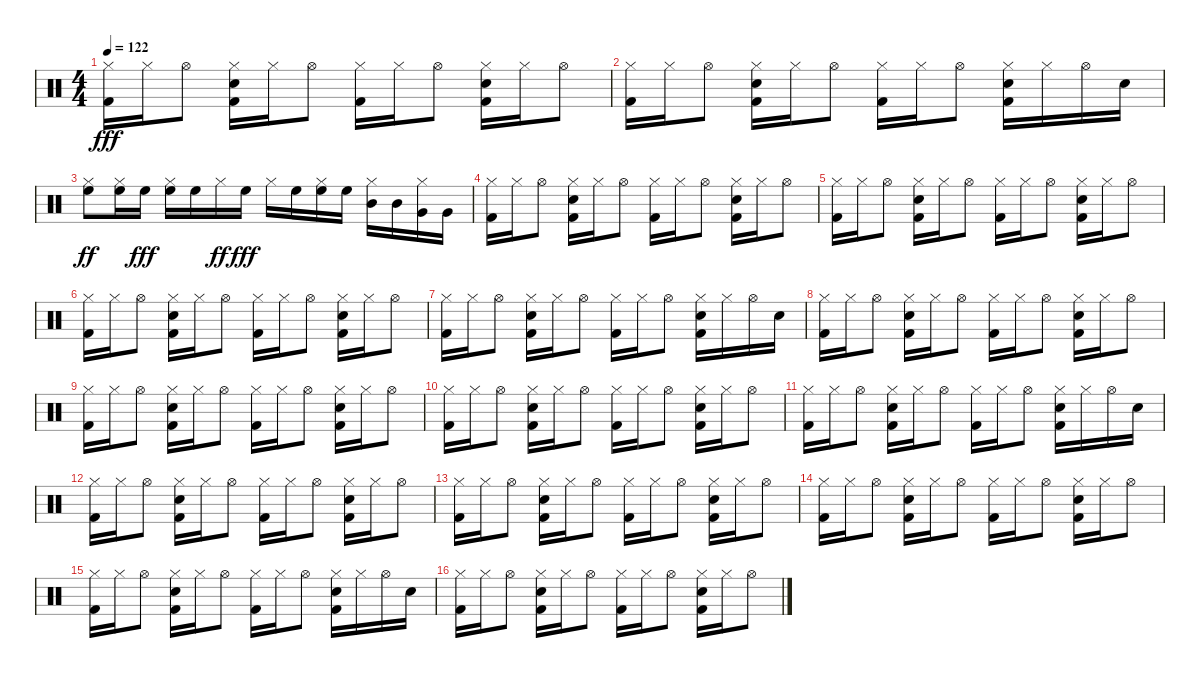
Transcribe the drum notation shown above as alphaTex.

\track "" {instrument percussion}
\staff {score}
\articulation defaults
\ts (4 4)
\tempo 122
\clef neutral
\ks c
("Kick (hit) 2" "Hi-Hat (closed)").16{dy fff} "Hi-Hat (closed)".16 "Hi-Hat (open)".8 ("Kick (hit) 2" "Snare (hit) 2" "Hi-Hat (closed)").16 "Hi-Hat (closed)".16 "Hi-Hat (open)".8 ("Kick (hit) 2" "Hi-Hat (closed)").16 "Hi-Hat (closed)".16 "Hi-Hat (open)".8 ("Kick (hit) 2" "Snare (hit) 2" "Hi-Hat (closed)").16 "Hi-Hat (closed)".16 "Hi-Hat (open)".8 |
("Kick (hit) 2" "Hi-Hat (closed)").16 "Hi-Hat (closed)".16 "Hi-Hat (open)".8 ("Kick (hit) 2" "Snare (hit) 2" "Hi-Hat (closed)").16 "Hi-Hat (closed)".16 "Hi-Hat (open)".8 ("Kick (hit) 2" "Hi-Hat (closed)").16 "Hi-Hat (closed)".16 "Hi-Hat (open)".8 ("Kick (hit) 2" "Snare (hit) 2" "Hi-Hat (closed)").16 "Hi-Hat (closed)".16 "Hi-Hat (open)".16 "Snare (hit) 2".16 |
("Hi-Hat (closed)" "High Floor Tom (hit)").8{dy ff} ("Hi-Hat (closed)" "High Floor Tom (hit)").16 "High Floor Tom (hit)".16{dy fff} ("Hi-Hat (closed)" "High Floor Tom (hit)").16 "High Floor Tom (hit)".16 "Hi-Hat (closed)".16{dy ff} "High Floor Tom (hit)".16{dy fff} "Hi-Hat (closed)".16 "High Floor Tom (hit)".16 ("Hi-Hat (closed)" "High Floor Tom (hit)").16 "High Floor Tom (hit)".16 ("Hi-Hat (closed)" "Mid Tom (hit)").16 "Mid Tom (hit)".16 ("Hi-Hat (closed)" "Very Low Tom (hit)").16 "Very Low Tom (hit)".16 |
("Kick (hit) 2" "Hi-Hat (closed)").16 "Hi-Hat (closed)".16 "Hi-Hat (open)".8 ("Kick (hit) 2" "Snare (hit) 2" "Hi-Hat (closed)").16 "Hi-Hat (closed)".16 "Hi-Hat (open)".8 ("Kick (hit) 2" "Hi-Hat (closed)").16 "Hi-Hat (closed)".16 "Hi-Hat (open)".8 ("Kick (hit) 2" "Snare (hit) 2" "Hi-Hat (closed)").16 "Hi-Hat (closed)".16 "Hi-Hat (open)".8 |
("Kick (hit) 2" "Hi-Hat (closed)").16 "Hi-Hat (closed)".16 "Hi-Hat (open)".8 ("Kick (hit) 2" "Snare (hit) 2" "Hi-Hat (closed)").16 "Hi-Hat (closed)".16 "Hi-Hat (open)".8 ("Kick (hit) 2" "Hi-Hat (closed)").16 "Hi-Hat (closed)".16 "Hi-Hat (open)".8 ("Kick (hit) 2" "Snare (hit) 2" "Hi-Hat (closed)").16 "Hi-Hat (closed)".16 "Hi-Hat (open)".8 |
("Kick (hit) 2" "Hi-Hat (closed)").16 "Hi-Hat (closed)".16 "Hi-Hat (open)".8 ("Kick (hit) 2" "Snare (hit) 2" "Hi-Hat (closed)").16 "Hi-Hat (closed)".16 "Hi-Hat (open)".8 ("Kick (hit) 2" "Hi-Hat (closed)").16 "Hi-Hat (closed)".16 "Hi-Hat (open)".8 ("Kick (hit) 2" "Snare (hit) 2" "Hi-Hat (closed)").16 "Hi-Hat (closed)".16 "Hi-Hat (open)".8 |
("Kick (hit) 2" "Hi-Hat (closed)").16 "Hi-Hat (closed)".16 "Hi-Hat (open)".8 ("Kick (hit) 2" "Snare (hit) 2" "Hi-Hat (closed)").16 "Hi-Hat (closed)".16 "Hi-Hat (open)".8 ("Kick (hit) 2" "Hi-Hat (closed)").16 "Hi-Hat (closed)".16 "Hi-Hat (open)".8 ("Kick (hit) 2" "Snare (hit) 2" "Hi-Hat (closed)").16 "Hi-Hat (closed)".16 "Hi-Hat (open)".16 "Snare (hit) 2".16 |
("Kick (hit) 2" "Hi-Hat (closed)").16 "Hi-Hat (closed)".16 "Hi-Hat (open)".8 ("Kick (hit) 2" "Snare (hit) 2" "Hi-Hat (closed)").16 "Hi-Hat (closed)".16 "Hi-Hat (open)".8 ("Kick (hit) 2" "Hi-Hat (closed)").16 "Hi-Hat (closed)".16 "Hi-Hat (open)".8 ("Kick (hit) 2" "Snare (hit) 2" "Hi-Hat (closed)").16 "Hi-Hat (closed)".16 "Hi-Hat (open)".8 |
("Kick (hit) 2" "Hi-Hat (closed)").16 "Hi-Hat (closed)".16 "Hi-Hat (open)".8 ("Kick (hit) 2" "Snare (hit) 2" "Hi-Hat (closed)").16 "Hi-Hat (closed)".16 "Hi-Hat (open)".8 ("Kick (hit) 2" "Hi-Hat (closed)").16 "Hi-Hat (closed)".16 "Hi-Hat (open)".8 ("Kick (hit) 2" "Snare (hit) 2" "Hi-Hat (closed)").16 "Hi-Hat (closed)".16 "Hi-Hat (open)".8 |
("Kick (hit) 2" "Hi-Hat (closed)").16 "Hi-Hat (closed)".16 "Hi-Hat (open)".8 ("Kick (hit) 2" "Snare (hit) 2" "Hi-Hat (closed)").16 "Hi-Hat (closed)".16 "Hi-Hat (open)".8 ("Kick (hit) 2" "Hi-Hat (closed)").16 "Hi-Hat (closed)".16 "Hi-Hat (open)".8 ("Kick (hit) 2" "Snare (hit) 2" "Hi-Hat (closed)").16 "Hi-Hat (closed)".16 "Hi-Hat (open)".8 |
("Kick (hit) 2" "Hi-Hat (closed)").16 "Hi-Hat (closed)".16 "Hi-Hat (open)".8 ("Kick (hit) 2" "Snare (hit) 2" "Hi-Hat (closed)").16 "Hi-Hat (closed)".16 "Hi-Hat (open)".8 ("Kick (hit) 2" "Hi-Hat (closed)").16 "Hi-Hat (closed)".16 "Hi-Hat (open)".8 ("Kick (hit) 2" "Snare (hit) 2" "Hi-Hat (closed)").16 "Hi-Hat (closed)".16 "Hi-Hat (open)".16 "Snare (hit) 2".16 |
("Kick (hit) 2" "Hi-Hat (closed)").16 "Hi-Hat (closed)".16 "Hi-Hat (open)".8 ("Kick (hit) 2" "Snare (hit) 2" "Hi-Hat (closed)").16 "Hi-Hat (closed)".16 "Hi-Hat (open)".8 ("Kick (hit) 2" "Hi-Hat (closed)").16 "Hi-Hat (closed)".16 "Hi-Hat (open)".8 ("Kick (hit) 2" "Snare (hit) 2" "Hi-Hat (closed)").16 "Hi-Hat (closed)".16 "Hi-Hat (open)".8 |
("Kick (hit) 2" "Hi-Hat (closed)").16 "Hi-Hat (closed)".16 "Hi-Hat (open)".8 ("Kick (hit) 2" "Snare (hit) 2" "Hi-Hat (closed)").16 "Hi-Hat (closed)".16 "Hi-Hat (open)".8 ("Kick (hit) 2" "Hi-Hat (closed)").16 "Hi-Hat (closed)".16 "Hi-Hat (open)".8 ("Kick (hit) 2" "Snare (hit) 2" "Hi-Hat (closed)").16 "Hi-Hat (closed)".16 "Hi-Hat (open)".8 |
("Kick (hit) 2" "Hi-Hat (closed)").16 "Hi-Hat (closed)".16 "Hi-Hat (open)".8 ("Kick (hit) 2" "Snare (hit) 2" "Hi-Hat (closed)").16 "Hi-Hat (closed)".16 "Hi-Hat (open)".8 ("Kick (hit) 2" "Hi-Hat (closed)").16 "Hi-Hat (closed)".16 "Hi-Hat (open)".8 ("Kick (hit) 2" "Snare (hit) 2" "Hi-Hat (closed)").16 "Hi-Hat (closed)".16 "Hi-Hat (open)".8 |
("Kick (hit) 2" "Hi-Hat (closed)").16 "Hi-Hat (closed)".16 "Hi-Hat (open)".8 ("Kick (hit) 2" "Snare (hit) 2" "Hi-Hat (closed)").16 "Hi-Hat (closed)".16 "Hi-Hat (open)".8 ("Kick (hit) 2" "Hi-Hat (closed)").16 "Hi-Hat (closed)".16 "Hi-Hat (open)".8 ("Kick (hit) 2" "Snare (hit) 2" "Hi-Hat (closed)").16 "Hi-Hat (closed)".16 "Hi-Hat (open)".16 "Snare (hit) 2".16 |
("Kick (hit) 2" "Hi-Hat (closed)").16 "Hi-Hat (closed)".16 "Hi-Hat (open)".8 ("Kick (hit) 2" "Snare (hit) 2" "Hi-Hat (closed)").16 "Hi-Hat (closed)".16 "Hi-Hat (open)".8 ("Kick (hit) 2" "Hi-Hat (closed)").16 "Hi-Hat (closed)".16 "Hi-Hat (open)".8 ("Kick (hit) 2" "Snare (hit) 2" "Hi-Hat (closed)").16 "Hi-Hat (closed)".16 "Hi-Hat (open)".8
